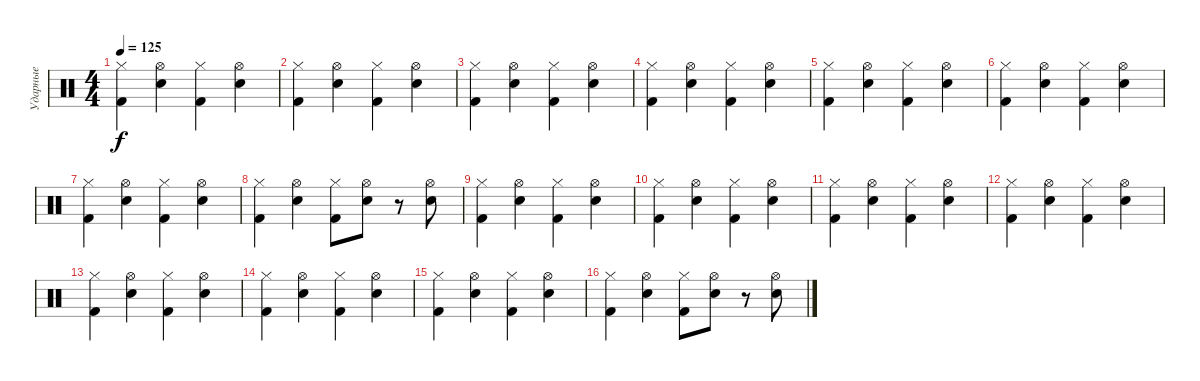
\track ("Ударные" "Ударные") {instrument percussion}
\staff {score}
\articulation defaults
\ts (4 4)
\tempo 125
\clef neutral
\ks c
("Hi-Hat (closed)" "Kick (hit) 2").4{dy f} ("Hi-Hat (open)" "Electric Snare (hit)").4 ("Hi-Hat (closed)" "Kick (hit) 2").4 ("Hi-Hat (open)" "Electric Snare (hit)").4 |
("Hi-Hat (closed)" "Kick (hit) 2").4 ("Hi-Hat (open)" "Electric Snare (hit)").4 ("Hi-Hat (closed)" "Kick (hit) 2").4 ("Hi-Hat (open)" "Electric Snare (hit)").4 |
("Hi-Hat (closed)" "Kick (hit) 2").4 ("Hi-Hat (open)" "Electric Snare (hit)").4 ("Hi-Hat (closed)" "Kick (hit) 2").4 ("Hi-Hat (open)" "Electric Snare (hit)").4 |
("Hi-Hat (closed)" "Kick (hit) 2").4 ("Hi-Hat (open)" "Electric Snare (hit)").4 ("Hi-Hat (closed)" "Kick (hit) 2").4 ("Hi-Hat (open)" "Electric Snare (hit)").4 |
("Hi-Hat (closed)" "Kick (hit) 2").4 ("Hi-Hat (open)" "Electric Snare (hit)").4 ("Hi-Hat (closed)" "Kick (hit) 2").4 ("Hi-Hat (open)" "Electric Snare (hit)").4 |
("Hi-Hat (closed)" "Kick (hit) 2").4 ("Hi-Hat (open)" "Electric Snare (hit)").4 ("Hi-Hat (closed)" "Kick (hit) 2").4 ("Hi-Hat (open)" "Electric Snare (hit)").4 |
("Hi-Hat (closed)" "Kick (hit) 2").4 ("Hi-Hat (open)" "Electric Snare (hit)").4 ("Hi-Hat (closed)" "Kick (hit) 2").4 ("Hi-Hat (open)" "Electric Snare (hit)").4 |
("Hi-Hat (closed)" "Kick (hit) 2").4 ("Hi-Hat (open)" "Electric Snare (hit)").4 ("Hi-Hat (closed)" "Kick (hit) 2").8 ("Hi-Hat (open)" "Electric Snare (hit)").8 r.8 ("Hi-Hat (open)" "Electric Snare (hit)").8 |
("Hi-Hat (closed)" "Kick (hit) 2").4 ("Hi-Hat (open)" "Electric Snare (hit)").4 ("Hi-Hat (closed)" "Kick (hit) 2").4 ("Hi-Hat (open)" "Electric Snare (hit)").4 |
("Hi-Hat (closed)" "Kick (hit) 2").4 ("Hi-Hat (open)" "Electric Snare (hit)").4 ("Hi-Hat (closed)" "Kick (hit) 2").4 ("Hi-Hat (open)" "Electric Snare (hit)").4 |
("Hi-Hat (closed)" "Kick (hit) 2").4 ("Hi-Hat (open)" "Electric Snare (hit)").4 ("Hi-Hat (closed)" "Kick (hit) 2").4 ("Hi-Hat (open)" "Electric Snare (hit)").4 |
("Hi-Hat (closed)" "Kick (hit) 2").4 ("Hi-Hat (open)" "Electric Snare (hit)").4 ("Hi-Hat (closed)" "Kick (hit) 2").4 ("Hi-Hat (open)" "Electric Snare (hit)").4 |
("Hi-Hat (closed)" "Kick (hit) 2").4 ("Hi-Hat (open)" "Electric Snare (hit)").4 ("Hi-Hat (closed)" "Kick (hit) 2").4 ("Hi-Hat (open)" "Electric Snare (hit)").4 |
("Hi-Hat (closed)" "Kick (hit) 2").4 ("Hi-Hat (open)" "Electric Snare (hit)").4 ("Hi-Hat (closed)" "Kick (hit) 2").4 ("Hi-Hat (open)" "Electric Snare (hit)").4 |
("Hi-Hat (closed)" "Kick (hit) 2").4 ("Hi-Hat (open)" "Electric Snare (hit)").4 ("Hi-Hat (closed)" "Kick (hit) 2").4 ("Hi-Hat (open)" "Electric Snare (hit)").4 |
("Hi-Hat (closed)" "Kick (hit) 2").4 ("Hi-Hat (open)" "Electric Snare (hit)").4 ("Hi-Hat (closed)" "Kick (hit) 2").8 ("Hi-Hat (open)" "Electric Snare (hit)").8 r.8 ("Hi-Hat (open)" "Electric Snare (hit)").8
